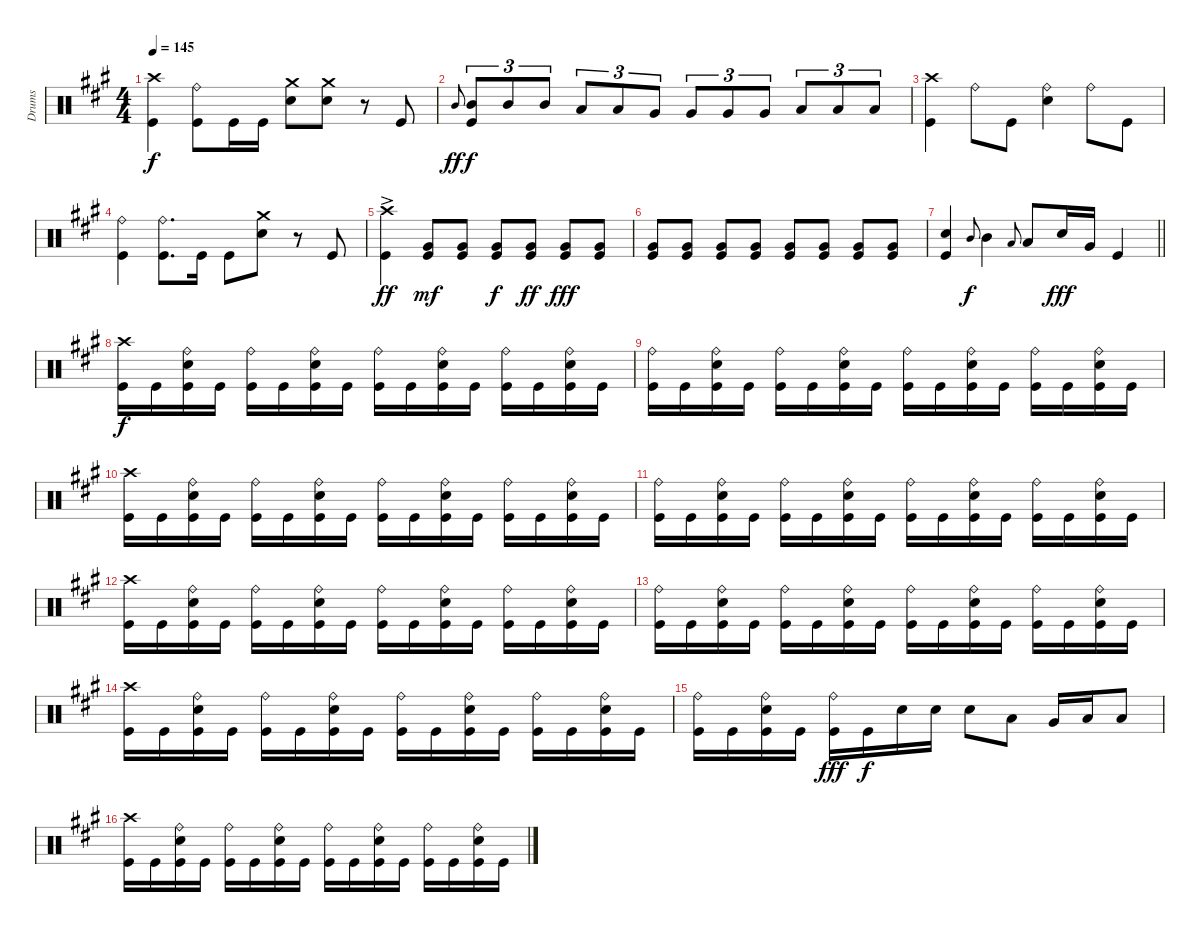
\track ("Drums" "Drums") {instrument percussion}
\staff {score}
\articulation defaults
\ts (4 4)
\tempo 145
\clef neutral
\ks f#minor
("Crash high (hit)" "Kick (hit)").4{dy f} ("Ride (bell)" "Kick (hit)").8 "Kick (hit)".16 "Kick (hit)".16 ("Crash medium (hit)" "Snare (hit) 2").8 ("Crash medium (hit)" "Snare (hit) 2").8 r.8 "Kick (hit)".8 |
"Mid Tom (hit)".8{gr onbeat dy ff} ("Mid Tom (hit)" "Kick (hit)").8{tu (3 2) dy f} "Mid Tom (hit)".8{tu (3 2)} "Mid Tom (hit)".8{tu (3 2)} "Low Tom (hit)".8{tu (3 2)} "Low Tom (hit)".8{tu (3 2)} "Very Low Tom (hit)".8{tu (3 2)} "Very Low Tom (hit)".8{tu (3 2)} "Very Low Tom (hit)".8{tu (3 2)} "Very Low Tom (hit)".8{tu (3 2)} "Low Floor Tom (hit)".8{tu (3 2)} "Low Floor Tom (hit)".8{tu (3 2)} "Low Floor Tom (hit)".8{tu (3 2)} |
("Crash high (hit)" "Kick (hit)").4 "Ride (bell)".8 "Kick (hit)".8 ("Ride (bell)" "Snare (hit) 2").4 "Ride (bell)".8 "Kick (hit)".8 |
("Ride (bell)" "Kick (hit)").4 ("Ride (bell)" "Kick (hit)").8{d} "Kick (hit)".16 "Kick (hit)".8 ("Crash medium (hit)" "Snare (hit) 2").8 r.8 "Kick (hit)".8 |
("Crash high (hit)"{ac} "Kick (hit)"{ac}).4{dy ff} ("Very Low Tom (hit)" "Kick (hit)").8{dy mf} ("Very Low Tom (hit)" "Kick (hit)").8 ("Very Low Tom (hit)" "Kick (hit)").8{dy f} ("Very Low Tom (hit)" "Kick (hit)").8{dy ff} ("Very Low Tom (hit)" "Kick (hit)").8{dy fff} ("Very Low Tom (hit)" "Kick (hit)").8 |
("Very Low Tom (hit)" "Kick (hit)").8 ("Very Low Tom (hit)" "Kick (hit)").8 ("Very Low Tom (hit)" "Kick (hit)").8 ("Very Low Tom (hit)" "Kick (hit)").8 ("Very Low Tom (hit)" "Kick (hit)").8 ("Very Low Tom (hit)" "Kick (hit)").8 ("Very Low Tom (hit)" "Kick (hit)").8 ("Very Low Tom (hit)" "Kick (hit)").8 |
\barLineRight lightlight
("Snare (hit) 2" "Kick (hit)").4 "Mid Tom (hit)".8{gr onbeat dy f} "Mid Tom (hit)".4 "Low Tom (hit)".8{gr onbeat} "Low Tom (hit)".8 "Snare (hit) 2".16{dy fff} "Very Low Tom (hit)".16 "Kick (hit)".4 |
("Crash high (hit)" "Kick (hit)").16{dy f} "Kick (hit)".16 ("Ride (bell)" "Snare (hit) 2" "Kick (hit)").16 "Kick (hit)".16 ("Ride (bell)" "Kick (hit)").16 "Kick (hit)".16 ("Ride (bell)" "Snare (hit) 2" "Kick (hit)").16 "Kick (hit)".16 ("Ride (bell)" "Kick (hit)").16 "Kick (hit)".16 ("Ride (bell)" "Snare (hit) 2" "Kick (hit)").16 "Kick (hit)".16 ("Ride (bell)" "Kick (hit)").16 "Kick (hit)".16 ("Ride (bell)" "Snare (hit) 2" "Kick (hit)").16 "Kick (hit)".16 |
("Ride (bell)" "Kick (hit)").16 "Kick (hit)".16 ("Ride (bell)" "Snare (hit) 2" "Kick (hit)").16 "Kick (hit)".16 ("Ride (bell)" "Kick (hit)").16 "Kick (hit)".16 ("Ride (bell)" "Snare (hit) 2" "Kick (hit)").16 "Kick (hit)".16 ("Ride (bell)" "Kick (hit)").16 "Kick (hit)".16 ("Ride (bell)" "Snare (hit) 2" "Kick (hit)").16 "Kick (hit)".16 ("Ride (bell)" "Kick (hit)").16 "Kick (hit)".16 ("Ride (bell)" "Snare (hit) 2" "Kick (hit)").16 "Kick (hit)".16 |
("Crash high (hit)" "Kick (hit)").16 "Kick (hit)".16 ("Ride (bell)" "Snare (hit) 2" "Kick (hit)").16 "Kick (hit)".16 ("Ride (bell)" "Kick (hit)").16 "Kick (hit)".16 ("Ride (bell)" "Snare (hit) 2" "Kick (hit)").16 "Kick (hit)".16 ("Ride (bell)" "Kick (hit)").16 "Kick (hit)".16 ("Ride (bell)" "Snare (hit) 2" "Kick (hit)").16 "Kick (hit)".16 ("Ride (bell)" "Kick (hit)").16 "Kick (hit)".16 ("Ride (bell)" "Snare (hit) 2" "Kick (hit)").16 "Kick (hit)".16 |
("Ride (bell)" "Kick (hit)").16 "Kick (hit)".16 ("Ride (bell)" "Snare (hit) 2" "Kick (hit)").16 "Kick (hit)".16 ("Ride (bell)" "Kick (hit)").16 "Kick (hit)".16 ("Ride (bell)" "Snare (hit) 2" "Kick (hit)").16 "Kick (hit)".16 ("Ride (bell)" "Kick (hit)").16 "Kick (hit)".16 ("Ride (bell)" "Snare (hit) 2" "Kick (hit)").16 "Kick (hit)".16 ("Ride (bell)" "Kick (hit)").16 "Kick (hit)".16 ("Ride (bell)" "Snare (hit) 2" "Kick (hit)").16 "Kick (hit)".16 |
("Crash high (hit)" "Kick (hit)").16 "Kick (hit)".16 ("Ride (bell)" "Snare (hit) 2" "Kick (hit)").16 "Kick (hit)".16 ("Ride (bell)" "Kick (hit)").16 "Kick (hit)".16 ("Ride (bell)" "Snare (hit) 2" "Kick (hit)").16 "Kick (hit)".16 ("Ride (bell)" "Kick (hit)").16 "Kick (hit)".16 ("Ride (bell)" "Snare (hit) 2" "Kick (hit)").16 "Kick (hit)".16 ("Ride (bell)" "Kick (hit)").16 "Kick (hit)".16 ("Ride (bell)" "Snare (hit) 2" "Kick (hit)").16 "Kick (hit)".16 |
("Ride (bell)" "Kick (hit)").16 "Kick (hit)".16 ("Ride (bell)" "Snare (hit) 2" "Kick (hit)").16 "Kick (hit)".16 ("Ride (bell)" "Kick (hit)").16 "Kick (hit)".16 ("Ride (bell)" "Snare (hit) 2" "Kick (hit)").16 "Kick (hit)".16 ("Ride (bell)" "Kick (hit)").16 "Kick (hit)".16 ("Ride (bell)" "Snare (hit) 2" "Kick (hit)").16 "Kick (hit)".16 ("Ride (bell)" "Kick (hit)").16 "Kick (hit)".16 ("Ride (bell)" "Snare (hit) 2" "Kick (hit)").16 "Kick (hit)".16 |
("Crash high (hit)" "Kick (hit)").16 "Kick (hit)".16 ("Ride (bell)" "Snare (hit) 2" "Kick (hit)").16 "Kick (hit)".16 ("Ride (bell)" "Kick (hit)").16 "Kick (hit)".16 ("Ride (bell)" "Snare (hit) 2" "Kick (hit)").16 "Kick (hit)".16 ("Ride (bell)" "Kick (hit)").16 "Kick (hit)".16 ("Ride (bell)" "Snare (hit) 2" "Kick (hit)").16 "Kick (hit)".16 ("Ride (bell)" "Kick (hit)").16 "Kick (hit)".16 ("Ride (bell)" "Snare (hit) 2" "Kick (hit)").16 "Kick (hit)".16 |
("Ride (bell)" "Kick (hit)").16 "Kick (hit)".16 ("Ride (bell)" "Snare (hit) 2" "Kick (hit)").16 "Kick (hit)".16 ("Ride (bell)" "Kick (hit)").16{dy fff} "Kick (hit)".16{dy f} "Snare (hit) 2".16 "Snare (hit) 2".16 "Snare (hit) 2".8 "Low Tom (hit)".8 "Very Low Tom (hit)".16 "Low Tom (hit)".16 "Low Floor Tom (hit)".8 |
("Crash high (hit)" "Kick (hit)").16 "Kick (hit)".16 ("Ride (bell)" "Snare (hit) 2" "Kick (hit)").16 "Kick (hit)".16 ("Ride (bell)" "Kick (hit)").16 "Kick (hit)".16 ("Ride (bell)" "Snare (hit) 2" "Kick (hit)").16 "Kick (hit)".16 ("Ride (bell)" "Kick (hit)").16 "Kick (hit)".16 ("Ride (bell)" "Snare (hit) 2" "Kick (hit)").16 "Kick (hit)".16 ("Ride (bell)" "Kick (hit)").16 "Kick (hit)".16 ("Ride (bell)" "Snare (hit) 2" "Kick (hit)").16 "Kick (hit)".16
